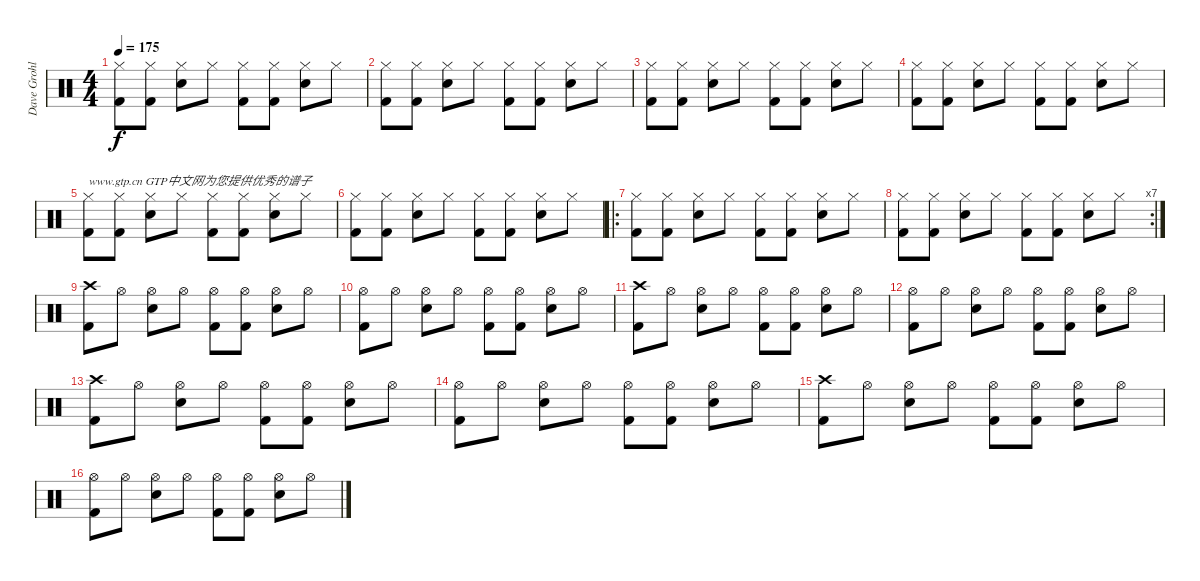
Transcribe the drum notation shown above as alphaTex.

\track ("Dave Grohl" "Dave Grohl") {instrument percussion}
\staff {score}
\articulation defaults
\ts (4 4)
\tempo 175
\clef neutral
\ks c
("Hi-Hat (closed)" "Kick (hit) 2").8{dy f} ("Hi-Hat (closed)" "Kick (hit) 2").8 ("Hi-Hat (closed)" "Electric Snare (hit)").8 "Hi-Hat (closed)".8 ("Hi-Hat (closed)" "Kick (hit) 2").8 ("Hi-Hat (closed)" "Kick (hit) 2").8 ("Hi-Hat (closed)" "Electric Snare (hit)").8 "Hi-Hat (closed)".8 |
("Hi-Hat (closed)" "Kick (hit) 2").8 ("Hi-Hat (closed)" "Kick (hit) 2").8 ("Hi-Hat (closed)" "Electric Snare (hit)").8 "Hi-Hat (closed)".8 ("Hi-Hat (closed)" "Kick (hit) 2").8 ("Hi-Hat (closed)" "Kick (hit) 2").8 ("Hi-Hat (closed)" "Electric Snare (hit)").8 "Hi-Hat (closed)".8 |
("Hi-Hat (closed)" "Kick (hit) 2").8 ("Hi-Hat (closed)" "Kick (hit) 2").8 ("Hi-Hat (closed)" "Electric Snare (hit)").8 "Hi-Hat (closed)".8 ("Hi-Hat (closed)" "Kick (hit) 2").8 ("Hi-Hat (closed)" "Kick (hit) 2").8 ("Hi-Hat (closed)" "Electric Snare (hit)").8 "Hi-Hat (closed)".8 |
("Hi-Hat (closed)" "Kick (hit) 2").8 ("Hi-Hat (closed)" "Kick (hit) 2").8 ("Hi-Hat (closed)" "Electric Snare (hit)").8 "Hi-Hat (closed)".8 ("Hi-Hat (closed)" "Kick (hit) 2").8 ("Hi-Hat (closed)" "Kick (hit) 2").8 ("Hi-Hat (closed)" "Electric Snare (hit)").8 "Hi-Hat (closed)".8 |
("Hi-Hat (closed)" "Kick (hit) 2").8{txt "www.gtp.cn GTP中文网为您提供优秀的谱子"} ("Hi-Hat (closed)" "Kick (hit) 2").8 ("Hi-Hat (closed)" "Electric Snare (hit)").8 "Hi-Hat (closed)".8 ("Hi-Hat (closed)" "Kick (hit) 2").8 ("Hi-Hat (closed)" "Kick (hit) 2").8 ("Hi-Hat (closed)" "Electric Snare (hit)").8 "Hi-Hat (closed)".8 |
("Hi-Hat (closed)" "Kick (hit) 2").8 ("Hi-Hat (closed)" "Kick (hit) 2").8 ("Hi-Hat (closed)" "Electric Snare (hit)").8 "Hi-Hat (closed)".8 ("Hi-Hat (closed)" "Kick (hit) 2").8 ("Hi-Hat (closed)" "Kick (hit) 2").8 ("Hi-Hat (closed)" "Electric Snare (hit)").8 "Hi-Hat (closed)".8 |
\ro
("Hi-Hat (closed)" "Kick (hit) 2").8 ("Hi-Hat (closed)" "Kick (hit) 2").8 ("Hi-Hat (closed)" "Electric Snare (hit)").8 "Hi-Hat (closed)".8 ("Hi-Hat (closed)" "Kick (hit) 2").8 ("Hi-Hat (closed)" "Kick (hit) 2").8 ("Hi-Hat (closed)" "Electric Snare (hit)").8 "Hi-Hat (closed)".8 |
\rc 7
("Hi-Hat (closed)" "Kick (hit) 2").8 ("Hi-Hat (closed)" "Kick (hit) 2").8 ("Hi-Hat (closed)" "Electric Snare (hit)").8 "Hi-Hat (closed)".8 ("Hi-Hat (closed)" "Kick (hit) 2").8 ("Hi-Hat (closed)" "Kick (hit) 2").8 ("Hi-Hat (closed)" "Electric Snare (hit)").8 "Hi-Hat (closed)".8 |
("Crash high (hit)" "Kick (hit) 2").8 "Hi-Hat (open)".8 ("Hi-Hat (open)" "Electric Snare (hit)").8 "Hi-Hat (open)".8 ("Hi-Hat (open)" "Kick (hit) 2").8 ("Hi-Hat (open)" "Kick (hit) 2").8 ("Hi-Hat (open)" "Electric Snare (hit)").8 "Hi-Hat (open)".8 |
("Hi-Hat (open)" "Kick (hit) 2").8 "Hi-Hat (open)".8 ("Hi-Hat (open)" "Electric Snare (hit)").8 "Hi-Hat (open)".8 ("Hi-Hat (open)" "Kick (hit) 2").8 ("Hi-Hat (open)" "Kick (hit) 2").8 ("Hi-Hat (open)" "Electric Snare (hit)").8 "Hi-Hat (open)".8 |
("Crash high (hit)" "Kick (hit) 2").8 "Hi-Hat (open)".8 ("Hi-Hat (open)" "Electric Snare (hit)").8 "Hi-Hat (open)".8 ("Hi-Hat (open)" "Kick (hit) 2").8 ("Hi-Hat (open)" "Kick (hit) 2").8 ("Hi-Hat (open)" "Electric Snare (hit)").8 "Hi-Hat (open)".8 |
("Hi-Hat (open)" "Kick (hit) 2").8 "Hi-Hat (open)".8 ("Hi-Hat (open)" "Electric Snare (hit)").8 "Hi-Hat (open)".8 ("Hi-Hat (open)" "Kick (hit) 2").8 ("Hi-Hat (open)" "Kick (hit) 2").8 ("Hi-Hat (open)" "Electric Snare (hit)").8 "Hi-Hat (open)".8 |
("Crash high (hit)" "Kick (hit) 2").8 "Hi-Hat (open)".8 ("Hi-Hat (open)" "Electric Snare (hit)").8 "Hi-Hat (open)".8 ("Hi-Hat (open)" "Kick (hit) 2").8 ("Hi-Hat (open)" "Kick (hit) 2").8 ("Hi-Hat (open)" "Electric Snare (hit)").8 "Hi-Hat (open)".8 |
("Hi-Hat (open)" "Kick (hit) 2").8 "Hi-Hat (open)".8 ("Hi-Hat (open)" "Electric Snare (hit)").8 "Hi-Hat (open)".8 ("Hi-Hat (open)" "Kick (hit) 2").8 ("Hi-Hat (open)" "Kick (hit) 2").8 ("Hi-Hat (open)" "Electric Snare (hit)").8 "Hi-Hat (open)".8 |
("Crash high (hit)" "Kick (hit) 2").8 "Hi-Hat (open)".8 ("Hi-Hat (open)" "Electric Snare (hit)").8 "Hi-Hat (open)".8 ("Hi-Hat (open)" "Kick (hit) 2").8 ("Hi-Hat (open)" "Kick (hit) 2").8 ("Hi-Hat (open)" "Electric Snare (hit)").8 "Hi-Hat (open)".8 |
("Hi-Hat (open)" "Kick (hit) 2").8 "Hi-Hat (open)".8 ("Hi-Hat (open)" "Electric Snare (hit)").8 "Hi-Hat (open)".8 ("Hi-Hat (open)" "Kick (hit) 2").8 ("Hi-Hat (open)" "Kick (hit) 2").8 ("Hi-Hat (open)" "Electric Snare (hit)").8 "Hi-Hat (open)".8
